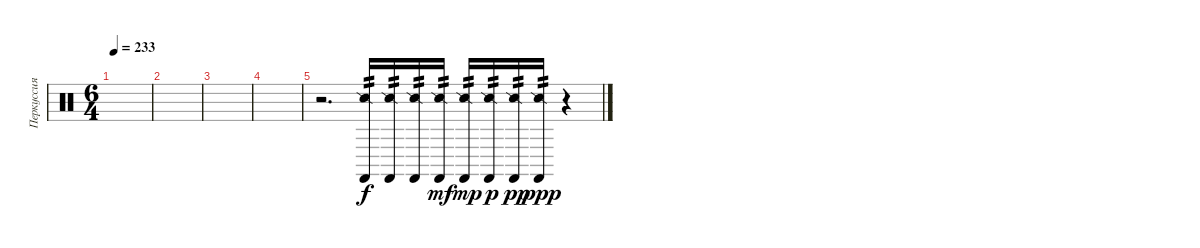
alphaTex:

\track ("Перкуссия" "Перкуссия") {instrument percussion}
\staff {score}
\articulation defaults
\ts (6 4)
\tempo 233
\clef neutral
\ks c
|
|
|
|
r.2{d} ("Snare (side stick) 2" "Castanets (hit)").16{tp 2 dy f} ("Snare (side stick) 2" "Castanets (hit)").16{tp 2} ("Snare (side stick) 2" "Castanets (hit)").16{tp 2} ("Snare (side stick) 2" "Castanets (hit)").16{tp 2 dy mf} ("Snare (side stick) 2" "Castanets (hit)").16{tp 2 dy mp} ("Snare (side stick) 2" "Castanets (hit)").16{tp 2 dy p} ("Snare (side stick) 2" "Castanets (hit)").16{tp 2 dy pp} ("Snare (side stick) 2" "Castanets (hit)").16{tp 2 dy ppp} r.4
